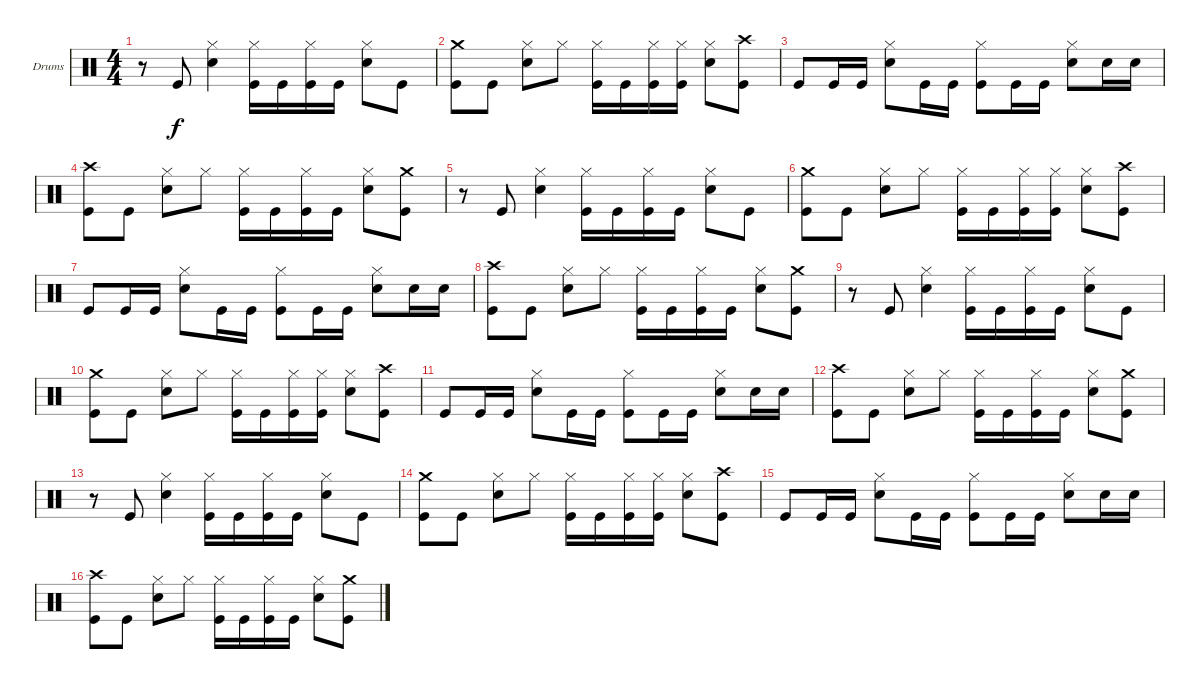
\bracketExtendMode groupsimilarinstruments
\firstSystemTrackNameOrientation horizontal
\otherSystemsTrackNameOrientation horizontal
\track ("Percussion" "Drums") {instrument percussion}
\staff {score}
\articulation defaults
\ts (4 4)
\tempo (142 hide)
\clef neutral
\ks c
r.8{dy f} "Kick (hit)".8 ("Hi-Hat (closed)" "Snare (hit) 2").4 ("Hi-Hat (closed)" "Kick (hit)").16 "Kick (hit)".16 ("Hi-Hat (closed)" "Kick (hit)").16 "Kick (hit)".16 ("Hi-Hat (closed)" "Snare (hit) 2").8 "Kick (hit)".8 |
("Crash medium (hit)" "Kick (hit)").8 "Kick (hit)".8 ("Hi-Hat (closed)" "Snare (hit) 2").8 "Hi-Hat (closed)".8 ("Hi-Hat (closed)" "Kick (hit)").16 "Kick (hit)".16 ("Hi-Hat (closed)" "Kick (hit)").16 ("Hi-Hat (closed)" "Kick (hit)").16 ("Hi-Hat (closed)" "Snare (hit) 2").8 ("Crash high (hit)" "Kick (hit)").8 |
"Kick (hit)".8 "Kick (hit)".16 "Kick (hit)".16 ("Hi-Hat (closed)" "Snare (hit) 2").8 "Kick (hit)".16 "Kick (hit)".16 ("Hi-Hat (closed)" "Kick (hit)").8 "Kick (hit)".16 "Kick (hit)".16 ("Hi-Hat (closed)" "Snare (hit) 2").8 "Snare (hit) 2".16 "Snare (hit) 2".16 |
("Crash high (hit)" "Kick (hit)").8 "Kick (hit)".8 ("Hi-Hat (closed)" "Snare (hit) 2").8 "Hi-Hat (closed)".8 ("Hi-Hat (closed)" "Kick (hit)").16 "Kick (hit)".16 ("Hi-Hat (closed)" "Kick (hit)").16 "Kick (hit)".16 ("Hi-Hat (closed)" "Snare (hit) 2").8 ("Crash medium (hit)" "Kick (hit)").8 |
r.8 "Kick (hit)".8 ("Hi-Hat (closed)" "Snare (hit) 2").4 ("Hi-Hat (closed)" "Kick (hit)").16 "Kick (hit)".16 ("Hi-Hat (closed)" "Kick (hit)").16 "Kick (hit)".16 ("Hi-Hat (closed)" "Snare (hit) 2").8 "Kick (hit)".8 |
("Crash medium (hit)" "Kick (hit)").8 "Kick (hit)".8 ("Hi-Hat (closed)" "Snare (hit) 2").8 "Hi-Hat (closed)".8 ("Hi-Hat (closed)" "Kick (hit)").16 "Kick (hit)".16 ("Hi-Hat (closed)" "Kick (hit)").16 ("Hi-Hat (closed)" "Kick (hit)").16 ("Hi-Hat (closed)" "Snare (hit) 2").8 ("Crash high (hit)" "Kick (hit)").8 |
"Kick (hit)".8 "Kick (hit)".16 "Kick (hit)".16 ("Hi-Hat (closed)" "Snare (hit) 2").8 "Kick (hit)".16 "Kick (hit)".16 ("Hi-Hat (closed)" "Kick (hit)").8 "Kick (hit)".16 "Kick (hit)".16 ("Hi-Hat (closed)" "Snare (hit) 2").8 "Snare (hit) 2".16 "Snare (hit) 2".16 |
("Crash high (hit)" "Kick (hit)").8 "Kick (hit)".8 ("Hi-Hat (closed)" "Snare (hit) 2").8 "Hi-Hat (closed)".8 ("Hi-Hat (closed)" "Kick (hit)").16 "Kick (hit)".16 ("Hi-Hat (closed)" "Kick (hit)").16 "Kick (hit)".16 ("Hi-Hat (closed)" "Snare (hit) 2").8 ("Crash medium (hit)" "Kick (hit)").8 |
r.8 "Kick (hit)".8 ("Hi-Hat (closed)" "Snare (hit) 2").4 ("Hi-Hat (closed)" "Kick (hit)").16 "Kick (hit)".16 ("Hi-Hat (closed)" "Kick (hit)").16 "Kick (hit)".16 ("Hi-Hat (closed)" "Snare (hit) 2").8 "Kick (hit)".8 |
("Crash medium (hit)" "Kick (hit)").8 "Kick (hit)".8 ("Hi-Hat (closed)" "Snare (hit) 2").8 "Hi-Hat (closed)".8 ("Hi-Hat (closed)" "Kick (hit)").16 "Kick (hit)".16 ("Hi-Hat (closed)" "Kick (hit)").16 ("Hi-Hat (closed)" "Kick (hit)").16 ("Hi-Hat (closed)" "Snare (hit) 2").8 ("Crash high (hit)" "Kick (hit)").8 |
"Kick (hit)".8 "Kick (hit)".16 "Kick (hit)".16 ("Hi-Hat (closed)" "Snare (hit) 2").8 "Kick (hit)".16 "Kick (hit)".16 ("Hi-Hat (closed)" "Kick (hit)").8 "Kick (hit)".16 "Kick (hit)".16 ("Hi-Hat (closed)" "Snare (hit) 2").8 "Snare (hit) 2".16 "Snare (hit) 2".16 |
("Crash high (hit)" "Kick (hit)").8 "Kick (hit)".8 ("Hi-Hat (closed)" "Snare (hit) 2").8 "Hi-Hat (closed)".8 ("Hi-Hat (closed)" "Kick (hit)").16 "Kick (hit)".16 ("Hi-Hat (closed)" "Kick (hit)").16 "Kick (hit)".16 ("Hi-Hat (closed)" "Snare (hit) 2").8 ("Crash medium (hit)" "Kick (hit)").8 |
r.8 "Kick (hit)".8 ("Hi-Hat (closed)" "Snare (hit) 2").4 ("Hi-Hat (closed)" "Kick (hit)").16 "Kick (hit)".16 ("Hi-Hat (closed)" "Kick (hit)").16 "Kick (hit)".16 ("Hi-Hat (closed)" "Snare (hit) 2").8 "Kick (hit)".8 |
("Crash medium (hit)" "Kick (hit)").8 "Kick (hit)".8 ("Hi-Hat (closed)" "Snare (hit) 2").8 "Hi-Hat (closed)".8 ("Hi-Hat (closed)" "Kick (hit)").16 "Kick (hit)".16 ("Hi-Hat (closed)" "Kick (hit)").16 ("Hi-Hat (closed)" "Kick (hit)").16 ("Hi-Hat (closed)" "Snare (hit) 2").8 ("Crash high (hit)" "Kick (hit)").8 |
"Kick (hit)".8 "Kick (hit)".16 "Kick (hit)".16 ("Hi-Hat (closed)" "Snare (hit) 2").8 "Kick (hit)".16 "Kick (hit)".16 ("Hi-Hat (closed)" "Kick (hit)").8 "Kick (hit)".16 "Kick (hit)".16 ("Hi-Hat (closed)" "Snare (hit) 2").8 "Snare (hit) 2".16 "Snare (hit) 2".16 |
("Crash high (hit)" "Kick (hit)").8 "Kick (hit)".8 ("Hi-Hat (closed)" "Snare (hit) 2").8 "Hi-Hat (closed)".8 ("Hi-Hat (closed)" "Kick (hit)").16 "Kick (hit)".16 ("Hi-Hat (closed)" "Kick (hit)").16 "Kick (hit)".16 ("Hi-Hat (closed)" "Snare (hit) 2").8 ("Crash medium (hit)" "Kick (hit)").8
